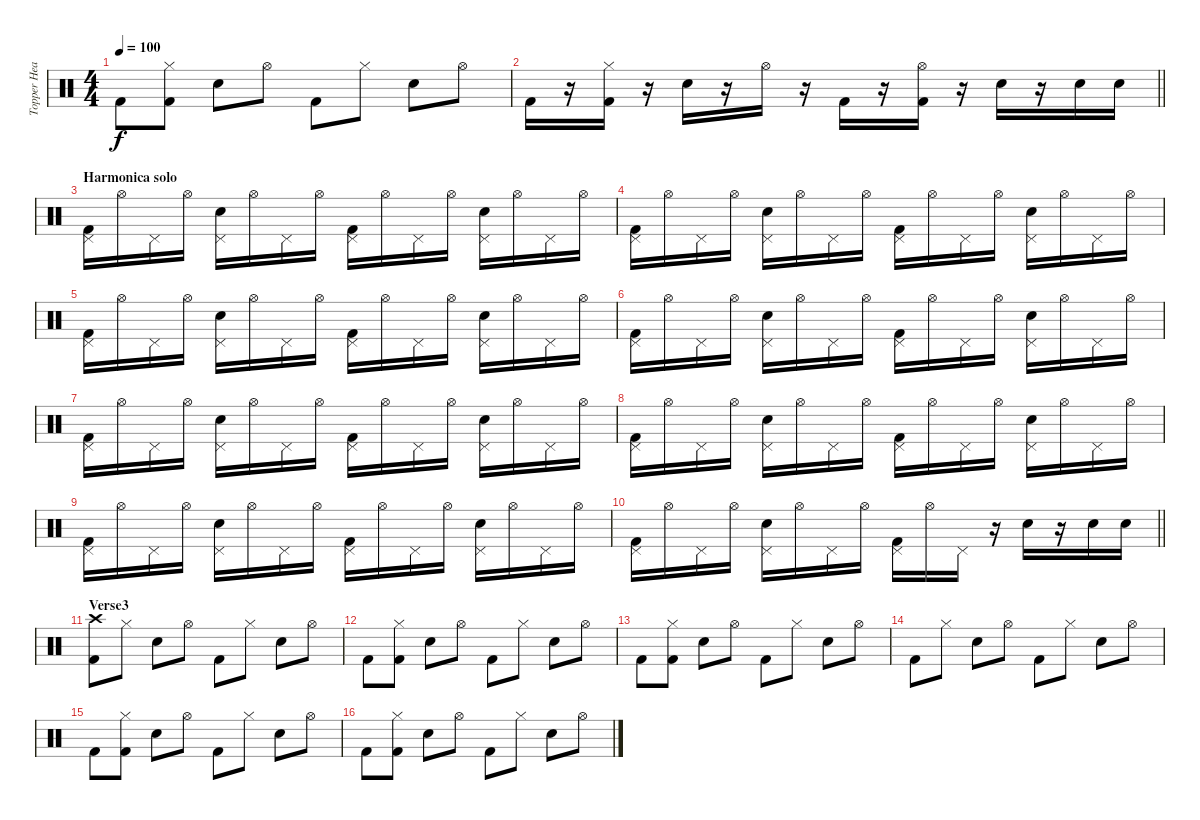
\track ("Topper Headon" "Topper Hea") {instrument percussion}
\staff {score}
\articulation defaults
\ts (4 4)
\tempo 100
\clef neutral
\ks c "Kick (hit) 2".8{dy f}
("Hi-Hat (closed)" "Kick (hit) 2").8 "Snare (hit) 2".8 "Hi-Hat (open)".8 "Kick (hit) 2".8 "Hi-Hat (closed)".8 "Snare (hit) 2".8 "Hi-Hat (open)".8 |
\barLineRight lightlight "Kick (hit) 2".16
r.16 ("Hi-Hat (closed)" "Kick (hit) 2").16 r.16 "Snare (hit) 2".16 r.16 "Hi-Hat (open)".16 r.16 "Kick (hit) 2".16 r.16 ("Hi-Hat (open)" "Kick (hit) 2").16 r.16 "Snare (hit) 2".16 r.16 "Snare (hit) 2".16 "Snare (hit) 2".16 |
\section ("" "Harmonica solo")
("Pedal Hi-Hat (hit)" "Kick (hit) 2").16 "Hi-Hat (open)".16 "Pedal Hi-Hat (hit)".16 "Hi-Hat (open)".16 ("Pedal Hi-Hat (hit)" "Snare (hit) 2").16 "Hi-Hat (open)".16 "Pedal Hi-Hat (hit)".16 "Hi-Hat (open)".16 ("Pedal Hi-Hat (hit)" "Kick (hit) 2").16 "Hi-Hat (open)".16 "Pedal Hi-Hat (hit)".16 "Hi-Hat (open)".16 ("Pedal Hi-Hat (hit)" "Snare (hit) 2").16 "Hi-Hat (open)".16 "Pedal Hi-Hat (hit)".16 "Hi-Hat (open)".16 |
("Pedal Hi-Hat (hit)" "Kick (hit) 2").16 "Hi-Hat (open)".16 "Pedal Hi-Hat (hit)".16 "Hi-Hat (open)".16 ("Pedal Hi-Hat (hit)" "Snare (hit) 2").16 "Hi-Hat (open)".16 "Pedal Hi-Hat (hit)".16 "Hi-Hat (open)".16 ("Pedal Hi-Hat (hit)" "Kick (hit) 2").16 "Hi-Hat (open)".16 "Pedal Hi-Hat (hit)".16 "Hi-Hat (open)".16 ("Pedal Hi-Hat (hit)" "Snare (hit) 2").16 "Hi-Hat (open)".16 "Pedal Hi-Hat (hit)".16 "Hi-Hat (open)".16 |
("Pedal Hi-Hat (hit)" "Kick (hit) 2").16 "Hi-Hat (open)".16 "Pedal Hi-Hat (hit)".16 "Hi-Hat (open)".16 ("Pedal Hi-Hat (hit)" "Snare (hit) 2").16 "Hi-Hat (open)".16 "Pedal Hi-Hat (hit)".16 "Hi-Hat (open)".16 ("Pedal Hi-Hat (hit)" "Kick (hit) 2").16 "Hi-Hat (open)".16 "Pedal Hi-Hat (hit)".16 "Hi-Hat (open)".16 ("Pedal Hi-Hat (hit)" "Snare (hit) 2").16 "Hi-Hat (open)".16 "Pedal Hi-Hat (hit)".16 "Hi-Hat (open)".16 |
("Pedal Hi-Hat (hit)" "Kick (hit) 2").16 "Hi-Hat (open)".16 "Pedal Hi-Hat (hit)".16 "Hi-Hat (open)".16 ("Pedal Hi-Hat (hit)" "Snare (hit) 2").16 "Hi-Hat (open)".16 "Pedal Hi-Hat (hit)".16 "Hi-Hat (open)".16 ("Pedal Hi-Hat (hit)" "Kick (hit) 2").16 "Hi-Hat (open)".16 "Pedal Hi-Hat (hit)".16 "Hi-Hat (open)".16 ("Pedal Hi-Hat (hit)" "Snare (hit) 2").16 "Hi-Hat (open)".16 "Pedal Hi-Hat (hit)".16 "Hi-Hat (open)".16 |
("Pedal Hi-Hat (hit)" "Kick (hit) 2").16 "Hi-Hat (open)".16 "Pedal Hi-Hat (hit)".16 "Hi-Hat (open)".16 ("Pedal Hi-Hat (hit)" "Snare (hit) 2").16 "Hi-Hat (open)".16 "Pedal Hi-Hat (hit)".16 "Hi-Hat (open)".16 ("Pedal Hi-Hat (hit)" "Kick (hit) 2").16 "Hi-Hat (open)".16 "Pedal Hi-Hat (hit)".16 "Hi-Hat (open)".16 ("Pedal Hi-Hat (hit)" "Snare (hit) 2").16 "Hi-Hat (open)".16 "Pedal Hi-Hat (hit)".16 "Hi-Hat (open)".16 |
("Pedal Hi-Hat (hit)" "Kick (hit) 2").16 "Hi-Hat (open)".16 "Pedal Hi-Hat (hit)".16 "Hi-Hat (open)".16 ("Pedal Hi-Hat (hit)" "Snare (hit) 2").16 "Hi-Hat (open)".16 "Pedal Hi-Hat (hit)".16 "Hi-Hat (open)".16 ("Pedal Hi-Hat (hit)" "Kick (hit) 2").16 "Hi-Hat (open)".16 "Pedal Hi-Hat (hit)".16 "Hi-Hat (open)".16 ("Pedal Hi-Hat (hit)" "Snare (hit) 2").16 "Hi-Hat (open)".16 "Pedal Hi-Hat (hit)".16 "Hi-Hat (open)".16 |
("Pedal Hi-Hat (hit)" "Kick (hit) 2").16 "Hi-Hat (open)".16 "Pedal Hi-Hat (hit)".16 "Hi-Hat (open)".16 ("Pedal Hi-Hat (hit)" "Snare (hit) 2").16 "Hi-Hat (open)".16 "Pedal Hi-Hat (hit)".16 "Hi-Hat (open)".16 ("Pedal Hi-Hat (hit)" "Kick (hit) 2").16 "Hi-Hat (open)".16 "Pedal Hi-Hat (hit)".16 "Hi-Hat (open)".16 ("Pedal Hi-Hat (hit)" "Snare (hit) 2").16 "Hi-Hat (open)".16 "Pedal Hi-Hat (hit)".16 "Hi-Hat (open)".16 |
\barLineRight lightlight
("Pedal Hi-Hat (hit)" "Kick (hit) 2").16 "Hi-Hat (open)".16 "Pedal Hi-Hat (hit)".16 "Hi-Hat (open)".16 ("Pedal Hi-Hat (hit)" "Snare (hit) 2").16 "Hi-Hat (open)".16 "Pedal Hi-Hat (hit)".16 "Hi-Hat (open)".16 ("Pedal Hi-Hat (hit)" "Kick (hit) 2").16 "Hi-Hat (open)".16 "Pedal Hi-Hat (hit)".16 r.16 "Snare (hit) 2".16 r.16 "Snare (hit) 2".16 "Snare (hit) 2".16 |
\section ("" "Verse3")
("Crash high (hit)" "Kick (hit) 2").8 "Hi-Hat (closed)".8 "Snare (hit) 2".8 "Hi-Hat (open)".8 "Kick (hit) 2".8 "Hi-Hat (closed)".8 "Snare (hit) 2".8 "Hi-Hat (open)".8 |
"Kick (hit) 2".8 ("Hi-Hat (closed)" "Kick (hit) 2").8 "Snare (hit) 2".8 "Hi-Hat (open)".8 "Kick (hit) 2".8 "Hi-Hat (closed)".8 "Snare (hit) 2".8 "Hi-Hat (open)".8 |
"Kick (hit) 2".8 ("Hi-Hat (closed)" "Kick (hit) 2").8 "Snare (hit) 2".8 "Hi-Hat (open)".8 "Kick (hit) 2".8 "Hi-Hat (closed)".8 "Snare (hit) 2".8 "Hi-Hat (open)".8 |
"Kick (hit) 2".8 "Hi-Hat (closed)".8 "Snare (hit) 2".8 "Hi-Hat (open)".8 "Kick (hit) 2".8 "Hi-Hat (closed)".8 "Snare (hit) 2".8 "Hi-Hat (open)".8 |
"Kick (hit) 2".8 ("Hi-Hat (closed)" "Kick (hit) 2").8 "Snare (hit) 2".8 "Hi-Hat (open)".8 "Kick (hit) 2".8 "Hi-Hat (closed)".8 "Snare (hit) 2".8 "Hi-Hat (open)".8 |
"Kick (hit) 2".8 ("Hi-Hat (closed)" "Kick (hit) 2").8 "Snare (hit) 2".8 "Hi-Hat (open)".8 "Kick (hit) 2".8 "Hi-Hat (closed)".8 "Snare (hit) 2".8 "Hi-Hat (open)".8
